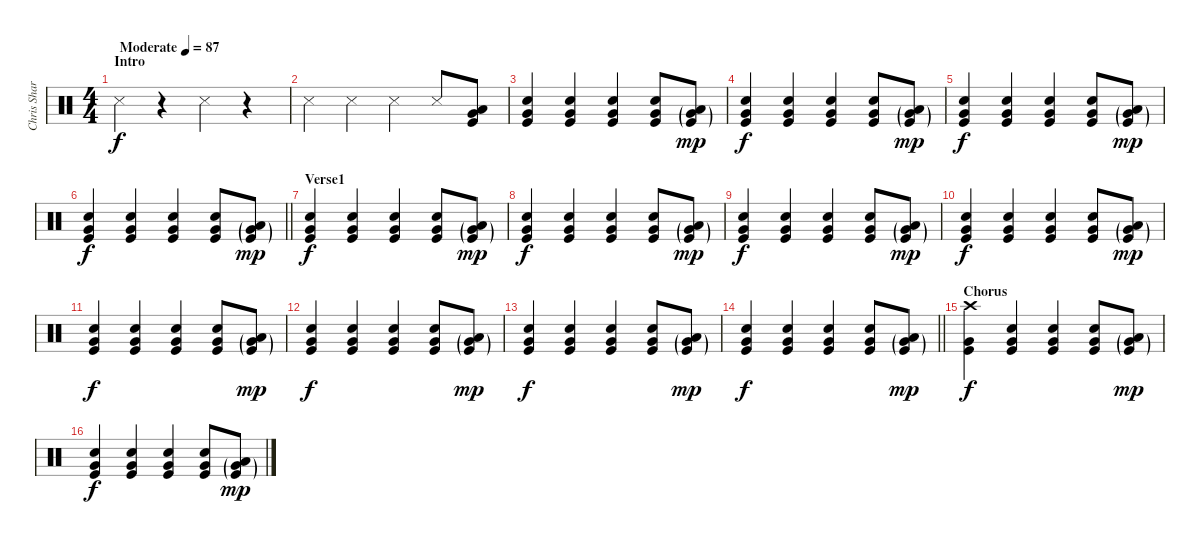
\track ("Chris Sharrock" "Chris Shar") {instrument percussion}
\staff {score}
\articulation defaults
\ts (4 4)
\section ("" "Intro")
\tempo (87 "Moderate")
\clef neutral
\ks c "Snare (side stick) 3".4{dy f}
r.4 "Snare (side stick) 3".4 r.4 |
"Snare (side stick) 3".4 "Snare (side stick) 3".4 "Snare (side stick) 3".4 "Snare (side stick) 3".8 ("Low Tom (hit)" "Very Low Tom (hit)" "Kick (hit)").8 |
("Kick (hit)" "Very Low Tom (hit)" "Snare (hit) 2").4 ("Kick (hit)" "Very Low Tom (hit)" "Snare (hit) 2").4 ("Kick (hit)" "Very Low Tom (hit)" "Snare (hit) 2").4 ("Kick (hit)" "Very Low Tom (hit)" "Snare (hit) 2").8 ("Low Tom (hit)"{g} "Very Low Tom (hit)"{g} "Kick (hit)"{g}).8{dy mp} |
("Kick (hit)" "Very Low Tom (hit)" "Snare (hit) 2").4{dy f} ("Kick (hit)" "Very Low Tom (hit)" "Snare (hit) 2").4 ("Kick (hit)" "Very Low Tom (hit)" "Snare (hit) 2").4 ("Kick (hit)" "Very Low Tom (hit)" "Snare (hit) 2").8 ("Low Tom (hit)"{g} "Very Low Tom (hit)"{g} "Kick (hit)"{g}).8{dy mp} |
("Kick (hit)" "Very Low Tom (hit)" "Snare (hit) 2").4{dy f} ("Kick (hit)" "Very Low Tom (hit)" "Snare (hit) 2").4 ("Kick (hit)" "Very Low Tom (hit)" "Snare (hit) 2").4 ("Kick (hit)" "Very Low Tom (hit)" "Snare (hit) 2").8 ("Low Tom (hit)"{g} "Very Low Tom (hit)"{g} "Kick (hit)"{g}).8{dy mp} |
\barLineRight lightlight
("Kick (hit)" "Very Low Tom (hit)" "Snare (hit) 2").4{dy f} ("Kick (hit)" "Very Low Tom (hit)" "Snare (hit) 2").4 ("Kick (hit)" "Very Low Tom (hit)" "Snare (hit) 2").4 ("Kick (hit)" "Very Low Tom (hit)" "Snare (hit) 2").8 ("Low Tom (hit)"{g} "Very Low Tom (hit)"{g} "Kick (hit)"{g}).8{dy mp} |
\section ("" "Verse1")
("Kick (hit)" "Very Low Tom (hit)" "Snare (hit) 2").4{dy f} ("Kick (hit)" "Very Low Tom (hit)" "Snare (hit) 2").4 ("Kick (hit)" "Very Low Tom (hit)" "Snare (hit) 2").4 ("Kick (hit)" "Very Low Tom (hit)" "Snare (hit) 2").8 ("Low Tom (hit)"{g} "Very Low Tom (hit)"{g} "Kick (hit)"{g}).8{dy mp} |
("Kick (hit)" "Very Low Tom (hit)" "Snare (hit) 2").4{dy f} ("Kick (hit)" "Very Low Tom (hit)" "Snare (hit) 2").4 ("Kick (hit)" "Very Low Tom (hit)" "Snare (hit) 2").4 ("Kick (hit)" "Very Low Tom (hit)" "Snare (hit) 2").8 ("Low Tom (hit)"{g} "Very Low Tom (hit)"{g} "Kick (hit)"{g}).8{dy mp} |
("Kick (hit)" "Very Low Tom (hit)" "Snare (hit) 2").4{dy f} ("Kick (hit)" "Very Low Tom (hit)" "Snare (hit) 2").4 ("Kick (hit)" "Very Low Tom (hit)" "Snare (hit) 2").4 ("Kick (hit)" "Very Low Tom (hit)" "Snare (hit) 2").8 ("Low Tom (hit)"{g} "Very Low Tom (hit)"{g} "Kick (hit)"{g}).8{dy mp} |
("Kick (hit)" "Very Low Tom (hit)" "Snare (hit) 2").4{dy f} ("Kick (hit)" "Very Low Tom (hit)" "Snare (hit) 2").4 ("Kick (hit)" "Very Low Tom (hit)" "Snare (hit) 2").4 ("Kick (hit)" "Very Low Tom (hit)" "Snare (hit) 2").8 ("Low Tom (hit)"{g} "Very Low Tom (hit)"{g} "Kick (hit)"{g}).8{dy mp} |
("Kick (hit)" "Very Low Tom (hit)" "Snare (hit) 2").4{dy f} ("Kick (hit)" "Very Low Tom (hit)" "Snare (hit) 2").4 ("Kick (hit)" "Very Low Tom (hit)" "Snare (hit) 2").4 ("Kick (hit)" "Very Low Tom (hit)" "Snare (hit) 2").8 ("Low Tom (hit)"{g} "Very Low Tom (hit)"{g} "Kick (hit)"{g}).8{dy mp} |
("Kick (hit)" "Very Low Tom (hit)" "Snare (hit) 2").4{dy f} ("Kick (hit)" "Very Low Tom (hit)" "Snare (hit) 2").4 ("Kick (hit)" "Very Low Tom (hit)" "Snare (hit) 2").4 ("Kick (hit)" "Very Low Tom (hit)" "Snare (hit) 2").8 ("Low Tom (hit)"{g} "Very Low Tom (hit)"{g} "Kick (hit)"{g}).8{dy mp} |
("Kick (hit)" "Very Low Tom (hit)" "Snare (hit) 2").4{dy f} ("Kick (hit)" "Very Low Tom (hit)" "Snare (hit) 2").4 ("Kick (hit)" "Very Low Tom (hit)" "Snare (hit) 2").4 ("Kick (hit)" "Very Low Tom (hit)" "Snare (hit) 2").8 ("Low Tom (hit)"{g} "Very Low Tom (hit)"{g} "Kick (hit)"{g}).8{dy mp} |
\barLineRight lightlight
("Kick (hit)" "Very Low Tom (hit)" "Snare (hit) 2").4{dy f} ("Kick (hit)" "Very Low Tom (hit)" "Snare (hit) 2").4 ("Kick (hit)" "Very Low Tom (hit)" "Snare (hit) 2").4 ("Kick (hit)" "Very Low Tom (hit)" "Snare (hit) 2").8 ("Low Tom (hit)"{g} "Very Low Tom (hit)"{g} "Kick (hit)"{g}).8{dy mp} |
\section ("" "Chorus")
("Kick (hit)" "Crash high (hit)" "Very Low Tom (hit)").4{dy f} ("Kick (hit)" "Very Low Tom (hit)" "Snare (hit) 2").4 ("Kick (hit)" "Very Low Tom (hit)" "Snare (hit) 2").4 ("Kick (hit)" "Very Low Tom (hit)" "Snare (hit) 2").8 ("Low Tom (hit)"{g} "Very Low Tom (hit)"{g} "Kick (hit)"{g}).8{dy mp} |
("Kick (hit)" "Very Low Tom (hit)" "Snare (hit) 2").4{dy f} ("Kick (hit)" "Very Low Tom (hit)" "Snare (hit) 2").4 ("Kick (hit)" "Very Low Tom (hit)" "Snare (hit) 2").4 ("Kick (hit)" "Very Low Tom (hit)" "Snare (hit) 2").8 ("Low Tom (hit)"{g} "Very Low Tom (hit)"{g} "Kick (hit)"{g}).8{dy mp}
